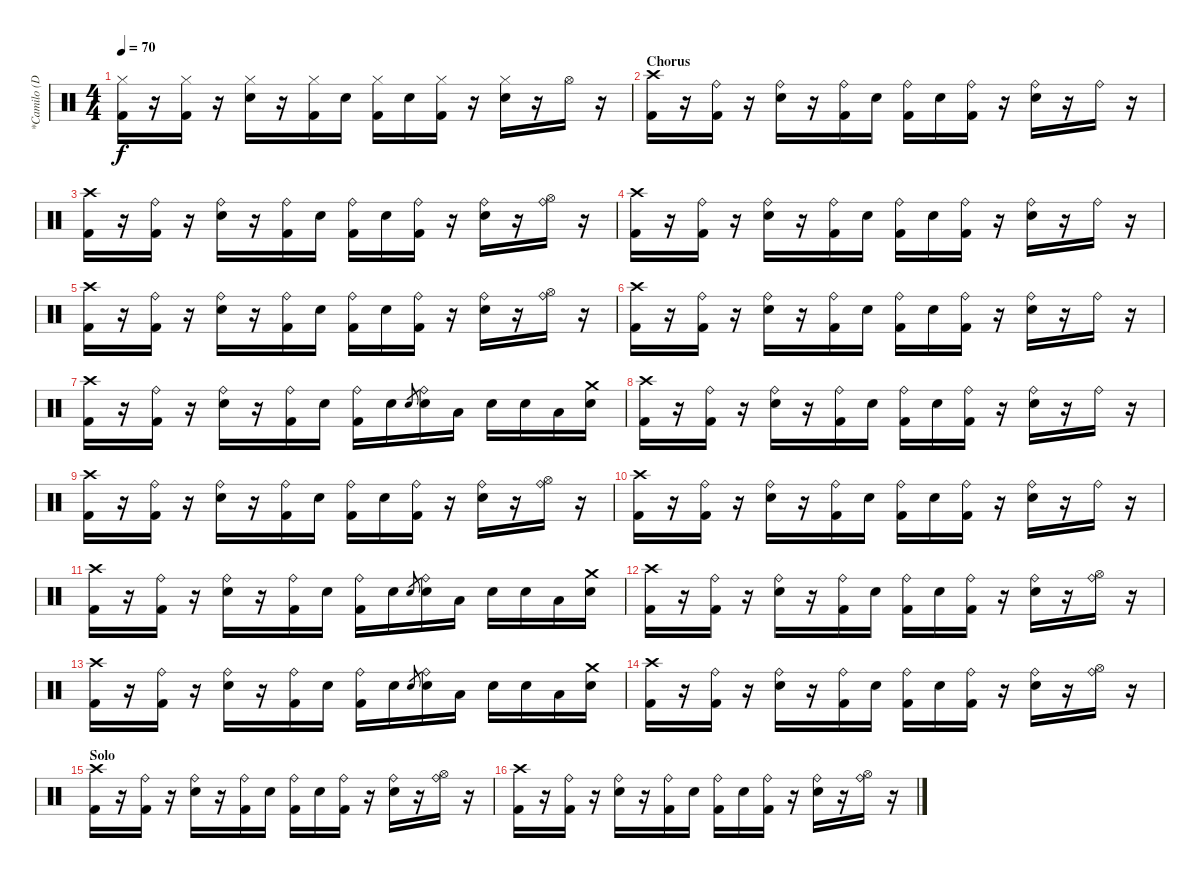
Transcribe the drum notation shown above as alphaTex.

\track ("*Camilo (Drums)" "*Camilo (D") {instrument percussion}
\staff {score}
\articulation defaults
\ts (4 4)
\tempo 70
\clef neutral
\ks c
("Hi-Hat (closed)" "Kick (hit) 2").16{dy f} r.16 ("Hi-Hat (closed)" "Kick (hit) 2").16 r.16 ("Hi-Hat (closed)" "Electric Snare (hit)").16 r.16 ("Hi-Hat (closed)" "Kick (hit) 2").16 "Electric Snare (hit)".16 ("Hi-Hat (closed)" "Kick (hit) 2").16 "Electric Snare (hit)".16 ("Hi-Hat (closed)" "Kick (hit) 2").16 r.16 ("Hi-Hat (closed)" "Electric Snare (hit)").16 r.16 "Hi-Hat (open)".16 r.16 |
\section ("" "Chorus")
("Crash high (hit)" "Kick (hit) 2").16 r.16 ("Ride (bell)" "Kick (hit) 2").16 r.16 ("Ride (bell)" "Electric Snare (hit)").16 r.16 ("Ride (bell)" "Kick (hit) 2").16 "Electric Snare (hit)".16 ("Ride (bell)" "Kick (hit) 2").16 "Electric Snare (hit)".16 ("Ride (bell)" "Kick (hit) 2").16 r.16 ("Ride (bell)" "Electric Snare (hit)").16 r.16 "Ride (bell)".16 r.16 |
("Crash high (hit)" "Kick (hit) 2").16 r.16 ("Ride (bell)" "Kick (hit) 2").16 r.16 ("Ride (bell)" "Electric Snare (hit)").16 r.16 ("Ride (bell)" "Kick (hit) 2").16 "Electric Snare (hit)".16 ("Ride (bell)" "Kick (hit) 2").16 "Electric Snare (hit)".16 ("Ride (bell)" "Kick (hit) 2").16 r.16 ("Ride (bell)" "Electric Snare (hit)").16 r.16 ("Ride (bell)" "Hi-Hat (open)").16 r.16 |
("Crash high (hit)" "Kick (hit) 2").16 r.16 ("Ride (bell)" "Kick (hit) 2").16 r.16 ("Ride (bell)" "Electric Snare (hit)").16 r.16 ("Ride (bell)" "Kick (hit) 2").16 "Electric Snare (hit)".16 ("Ride (bell)" "Kick (hit) 2").16 "Electric Snare (hit)".16 ("Ride (bell)" "Kick (hit) 2").16 r.16 ("Ride (bell)" "Electric Snare (hit)").16 r.16 "Ride (bell)".16 r.16 |
("Crash high (hit)" "Kick (hit) 2").16 r.16 ("Ride (bell)" "Kick (hit) 2").16 r.16 ("Ride (bell)" "Electric Snare (hit)").16 r.16 ("Ride (bell)" "Kick (hit) 2").16 "Electric Snare (hit)".16 ("Ride (bell)" "Kick (hit) 2").16 "Electric Snare (hit)".16 ("Ride (bell)" "Kick (hit) 2").16 r.16 ("Ride (bell)" "Electric Snare (hit)").16 r.16 ("Ride (bell)" "Hi-Hat (open)").16 r.16 |
("Crash high (hit)" "Kick (hit) 2").16 r.16 ("Ride (bell)" "Kick (hit) 2").16 r.16 ("Ride (bell)" "Electric Snare (hit)").16 r.16 ("Ride (bell)" "Kick (hit) 2").16 "Electric Snare (hit)".16 ("Ride (bell)" "Kick (hit) 2").16 "Electric Snare (hit)".16 ("Ride (bell)" "Kick (hit) 2").16 r.16 ("Ride (bell)" "Electric Snare (hit)").16 r.16 "Ride (bell)".16 r.16 |
("Crash high (hit)" "Kick (hit) 2").16 r.16 ("Ride (bell)" "Kick (hit) 2").16 r.16 ("Ride (bell)" "Electric Snare (hit)").16 r.16 ("Ride (bell)" "Kick (hit) 2").16 "Electric Snare (hit)".16 ("Ride (bell)" "Kick (hit) 2").16 "Electric Snare (hit)".16 "Electric Snare (hit)".8{gr} ("Ride (bell)" "Electric Snare (hit)").16 "Low Tom (hit)".16 "Electric Snare (hit)".16 "Electric Snare (hit)".16 "Low Tom (hit)".16 ("Crash medium (hit)" "Electric Snare (hit)").16 |
("Crash high (hit)" "Kick (hit) 2").16 r.16 ("Ride (bell)" "Kick (hit) 2").16 r.16 ("Ride (bell)" "Electric Snare (hit)").16 r.16 ("Ride (bell)" "Kick (hit) 2").16 "Electric Snare (hit)".16 ("Ride (bell)" "Kick (hit) 2").16 "Electric Snare (hit)".16 ("Ride (bell)" "Kick (hit) 2").16 r.16 ("Ride (bell)" "Electric Snare (hit)").16 r.16 "Ride (bell)".16 r.16 |
("Crash high (hit)" "Kick (hit) 2").16 r.16 ("Ride (bell)" "Kick (hit) 2").16 r.16 ("Ride (bell)" "Electric Snare (hit)").16 r.16 ("Ride (bell)" "Kick (hit) 2").16 "Electric Snare (hit)".16 ("Ride (bell)" "Kick (hit) 2").16 "Electric Snare (hit)".16 ("Ride (bell)" "Kick (hit) 2").16 r.16 ("Ride (bell)" "Electric Snare (hit)").16 r.16 ("Ride (bell)" "Hi-Hat (open)").16 r.16 |
("Crash high (hit)" "Kick (hit) 2").16 r.16 ("Ride (bell)" "Kick (hit) 2").16 r.16 ("Ride (bell)" "Electric Snare (hit)").16 r.16 ("Ride (bell)" "Kick (hit) 2").16 "Electric Snare (hit)".16 ("Ride (bell)" "Kick (hit) 2").16 "Electric Snare (hit)".16 ("Ride (bell)" "Kick (hit) 2").16 r.16 ("Ride (bell)" "Electric Snare (hit)").16 r.16 "Ride (bell)".16 r.16 |
("Crash high (hit)" "Kick (hit) 2").16 r.16 ("Ride (bell)" "Kick (hit) 2").16 r.16 ("Ride (bell)" "Electric Snare (hit)").16 r.16 ("Ride (bell)" "Kick (hit) 2").16 "Electric Snare (hit)".16 ("Ride (bell)" "Kick (hit) 2").16 "Electric Snare (hit)".16 "Electric Snare (hit)".8{gr} ("Ride (bell)" "Electric Snare (hit)").16 "Low Tom (hit)".16 "Electric Snare (hit)".16 "Electric Snare (hit)".16 "Low Tom (hit)".16 ("Crash medium (hit)" "Electric Snare (hit)").16 |
("Crash high (hit)" "Kick (hit) 2").16 r.16 ("Ride (bell)" "Kick (hit) 2").16 r.16 ("Ride (bell)" "Electric Snare (hit)").16 r.16 ("Ride (bell)" "Kick (hit) 2").16 "Electric Snare (hit)".16 ("Ride (bell)" "Kick (hit) 2").16 "Electric Snare (hit)".16 ("Ride (bell)" "Kick (hit) 2").16 r.16 ("Ride (bell)" "Electric Snare (hit)").16 r.16 ("Ride (bell)" "Hi-Hat (open)").16 r.16 |
("Crash high (hit)" "Kick (hit) 2").16 r.16 ("Ride (bell)" "Kick (hit) 2").16 r.16 ("Ride (bell)" "Electric Snare (hit)").16 r.16 ("Ride (bell)" "Kick (hit) 2").16 "Electric Snare (hit)".16 ("Ride (bell)" "Kick (hit) 2").16 "Electric Snare (hit)".16 "Electric Snare (hit)".8{gr} ("Ride (bell)" "Electric Snare (hit)").16 "Low Tom (hit)".16 "Electric Snare (hit)".16 "Electric Snare (hit)".16 "Low Tom (hit)".16 ("Crash medium (hit)" "Electric Snare (hit)").16 |
("Crash high (hit)" "Kick (hit) 2").16 r.16 ("Ride (bell)" "Kick (hit) 2").16 r.16 ("Ride (bell)" "Electric Snare (hit)").16 r.16 ("Ride (bell)" "Kick (hit) 2").16 "Electric Snare (hit)".16 ("Ride (bell)" "Kick (hit) 2").16 "Electric Snare (hit)".16 ("Ride (bell)" "Kick (hit) 2").16 r.16 ("Ride (bell)" "Electric Snare (hit)").16 r.16 ("Ride (bell)" "Hi-Hat (open)").16 r.16 |
\section ("" "Solo")
("Crash high (hit)" "Kick (hit) 2").16 r.16 ("Ride (bell)" "Kick (hit) 2").16 r.16 ("Ride (bell)" "Electric Snare (hit)").16 r.16 ("Ride (bell)" "Kick (hit) 2").16 "Electric Snare (hit)".16 ("Ride (bell)" "Kick (hit) 2").16 "Electric Snare (hit)".16 ("Ride (bell)" "Kick (hit) 2").16 r.16 ("Ride (bell)" "Electric Snare (hit)").16 r.16 ("Ride (bell)" "Hi-Hat (open)").16 r.16 |
("Crash high (hit)" "Kick (hit) 2").16 r.16 ("Ride (bell)" "Kick (hit) 2").16 r.16 ("Ride (bell)" "Electric Snare (hit)").16 r.16 ("Ride (bell)" "Kick (hit) 2").16 "Electric Snare (hit)".16 ("Ride (bell)" "Kick (hit) 2").16 "Electric Snare (hit)".16 ("Ride (bell)" "Kick (hit) 2").16 r.16 ("Ride (bell)" "Electric Snare (hit)").16 r.16 ("Ride (bell)" "Hi-Hat (open)").16 r.16
